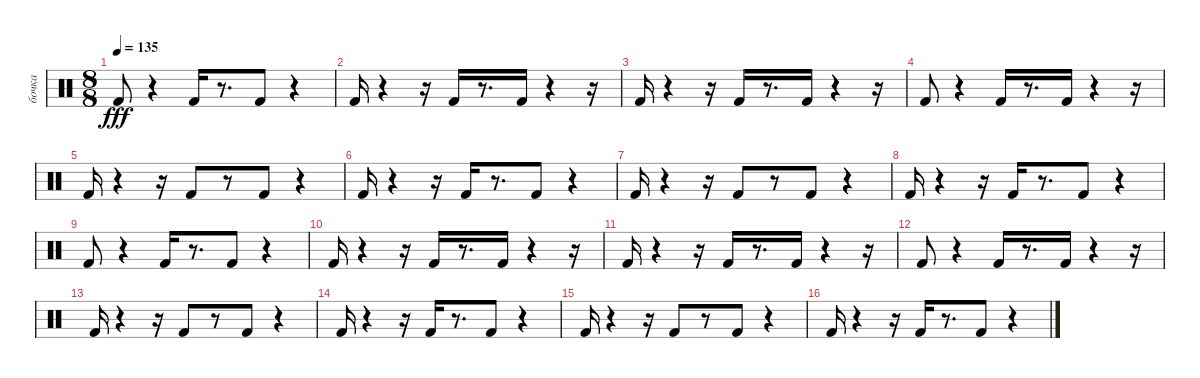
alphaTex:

\track ("бочка" "бочка") {instrument percussion}
\staff {score}
\articulation defaults
\ts (8 8)
\tempo 135
\clef neutral
\ks c "Kick (hit) 2".8{dy fff}
r.4 "Kick (hit) 2".16 r.8{d} "Kick (hit) 2".8 r.4 |
"Kick (hit) 2".16 r.4 r.16 "Kick (hit) 2".16 r.8{d} "Kick (hit) 2".16 r.4 r.16 |
"Kick (hit) 2".16 r.4 r.16 "Kick (hit) 2".16 r.8{d} "Kick (hit) 2".16 r.4 r.16 |
"Kick (hit) 2".8 r.4 "Kick (hit) 2".16 r.8{d} "Kick (hit) 2".16 r.4 r.16 |
"Kick (hit) 2".16 r.4 r.16 "Kick (hit) 2".8 r.8 "Kick (hit) 2".8 r.4 |
"Kick (hit) 2".16 r.4 r.16 "Kick (hit) 2".16 r.8{d} "Kick (hit) 2".8 r.4 |
"Kick (hit) 2".16 r.4 r.16 "Kick (hit) 2".8 r.8 "Kick (hit) 2".8 r.4 |
"Kick (hit) 2".16 r.4 r.16 "Kick (hit) 2".16 r.8{d} "Kick (hit) 2".8 r.4 |
"Kick (hit) 2".8 r.4 "Kick (hit) 2".16 r.8{d} "Kick (hit) 2".8 r.4 |
"Kick (hit) 2".16 r.4 r.16 "Kick (hit) 2".16 r.8{d} "Kick (hit) 2".16 r.4 r.16 |
"Kick (hit) 2".16 r.4 r.16 "Kick (hit) 2".16 r.8{d} "Kick (hit) 2".16 r.4 r.16 |
"Kick (hit) 2".8 r.4 "Kick (hit) 2".16 r.8{d} "Kick (hit) 2".16 r.4 r.16 |
"Kick (hit) 2".16 r.4 r.16 "Kick (hit) 2".8 r.8 "Kick (hit) 2".8 r.4 |
"Kick (hit) 2".16 r.4 r.16 "Kick (hit) 2".16 r.8{d} "Kick (hit) 2".8 r.4 |
"Kick (hit) 2".16 r.4 r.16 "Kick (hit) 2".8 r.8 "Kick (hit) 2".8 r.4 |
"Kick (hit) 2".16 r.4 r.16 "Kick (hit) 2".16 r.8{d} "Kick (hit) 2".8 r.4
